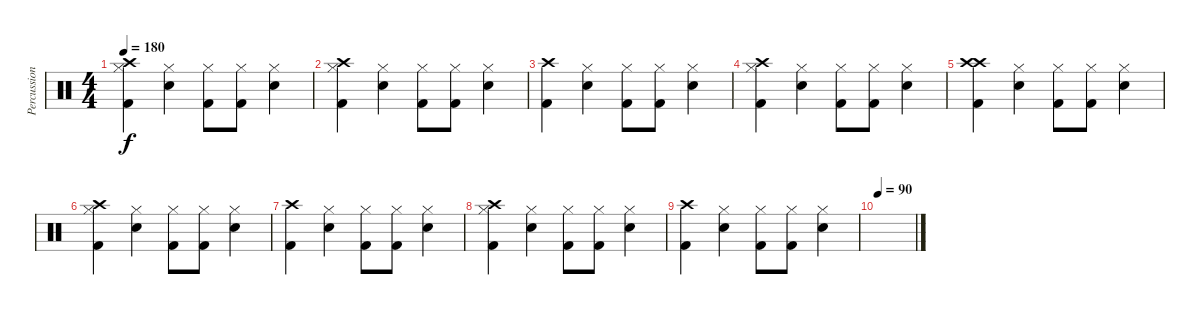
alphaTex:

\track ("Percussion" "Percussion") {instrument percussion}
\staff {score}
\articulation defaults
\ts (4 4)
\tempo 180
\clef neutral
\ks c
("Crash high (hit)" "Hi-Hat (closed)" "Kick (hit) 2").4{dy f} ("Hi-Hat (closed)" "Snare (hit) 2").4 ("Hi-Hat (closed)" "Kick (hit) 2").8 ("Hi-Hat (closed)" "Kick (hit) 2").8 ("Hi-Hat (closed)" "Snare (hit) 2").4 |
("Crash high (hit)" "Hi-Hat (closed)" "Kick (hit) 2").4 ("Hi-Hat (closed)" "Snare (hit) 2").4 ("Hi-Hat (closed)" "Kick (hit) 2").8 ("Hi-Hat (closed)" "Kick (hit) 2").8 ("Hi-Hat (closed)" "Snare (hit) 2").4 |
("Crash high (hit)" "Kick (hit) 2").4 ("Hi-Hat (closed)" "Snare (hit) 2").4 ("Hi-Hat (closed)" "Kick (hit) 2").8 ("Hi-Hat (closed)" "Kick (hit) 2").8 ("Hi-Hat (closed)" "Snare (hit) 2").4 |
("Crash high (hit)" "Hi-Hat (closed)" "Kick (hit) 2").4 ("Hi-Hat (closed)" "Snare (hit) 2").4 ("Hi-Hat (closed)" "Kick (hit) 2").8 ("Hi-Hat (closed)" "Kick (hit) 2").8 ("Hi-Hat (closed)" "Snare (hit) 2").4 |
("Crash high (hit)" "Crash high (hit)" "Kick (hit) 2").4 ("Hi-Hat (closed)" "Snare (hit) 2").4 ("Hi-Hat (closed)" "Kick (hit) 2").8 ("Hi-Hat (closed)" "Kick (hit) 2").8 ("Hi-Hat (closed)" "Snare (hit) 2").4 |
("Crash high (hit)" "Hi-Hat (closed)" "Kick (hit) 2").4 ("Hi-Hat (closed)" "Snare (hit) 2").4 ("Hi-Hat (closed)" "Kick (hit) 2").8 ("Hi-Hat (closed)" "Kick (hit) 2").8 ("Hi-Hat (closed)" "Snare (hit) 2").4 |
("Crash high (hit)" "Kick (hit) 2").4 ("Hi-Hat (closed)" "Snare (hit) 2").4 ("Hi-Hat (closed)" "Kick (hit) 2").8 ("Hi-Hat (closed)" "Kick (hit) 2").8 ("Hi-Hat (closed)" "Snare (hit) 2").4 |
("Crash high (hit)" "Hi-Hat (closed)" "Kick (hit) 2").4 ("Hi-Hat (closed)" "Snare (hit) 2").4 ("Hi-Hat (closed)" "Kick (hit) 2").8 ("Hi-Hat (closed)" "Kick (hit) 2").8 ("Hi-Hat (closed)" "Snare (hit) 2").4 |
("Crash high (hit)" "Kick (hit) 2").4 ("Hi-Hat (closed)" "Snare (hit) 2").4 ("Hi-Hat (closed)" "Kick (hit) 2").8 ("Hi-Hat (closed)" "Kick (hit) 2").8 ("Hi-Hat (closed)" "Snare (hit) 2").4 |
\tempo 90
